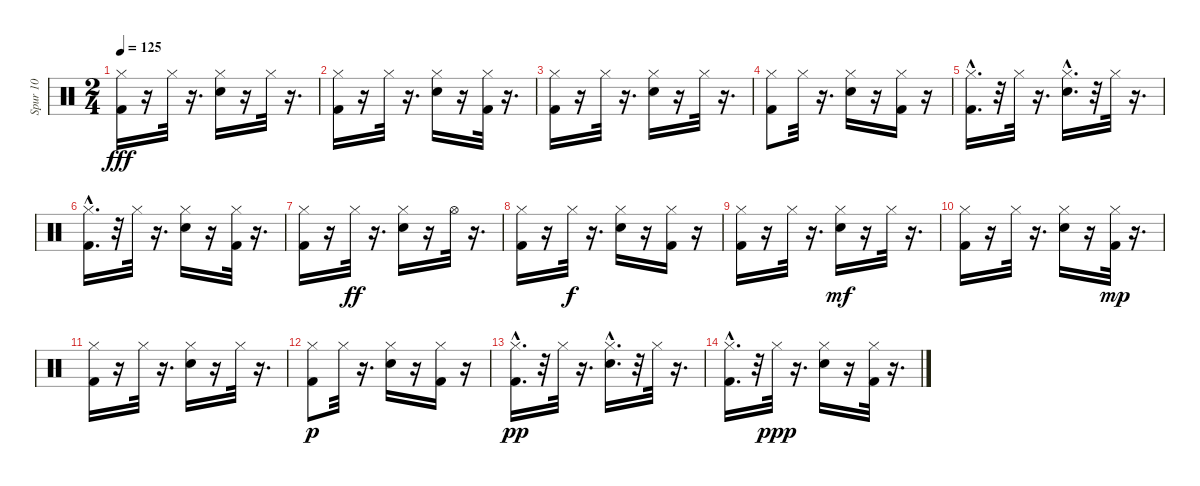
\track ("Spur 10" "Spur 10") {instrument percussion}
\staff {score}
\articulation defaults
\ts (2 4)
\tempo 125
\clef neutral
\ks c
("Kick (hit) 2" "Hi-Hat (closed)").16{dy fff} r.16 "Hi-Hat (closed)".32 r.16{d} ("Snare (hit) 2" "Hi-Hat (closed)").16 r.16 "Hi-Hat (closed)".32 r.16{d} |
("Kick (hit) 2" "Hi-Hat (closed)").16 r.16 "Hi-Hat (closed)".32 r.16{d} ("Snare (hit) 2" "Hi-Hat (closed)").16 r.16 ("Kick (hit) 2" "Hi-Hat (closed)").32 r.16{d} |
("Kick (hit) 2" "Hi-Hat (closed)").16 r.16 "Hi-Hat (closed)".32 r.16{d} ("Snare (hit) 2" "Hi-Hat (closed)").16 r.16 "Hi-Hat (closed)".32 r.16{d} |
("Kick (hit) 2" "Hi-Hat (closed)").8 "Hi-Hat (closed)".32 r.16{d} ("Snare (hit) 2" "Hi-Hat (closed)").16 r.16 ("Kick (hit) 2" "Hi-Hat (closed)").16 r.16 |
("Kick (hit) 2"{hac} "Hi-Hat (closed)").16{d} r.32 "Hi-Hat (closed)".32 r.16{d} ("Snare (hit) 2"{hac} "Hi-Hat (closed)").16{d} r.32 "Hi-Hat (closed)".32 r.16{d} |
("Kick (hit) 2"{hac} "Hi-Hat (closed)").16{d} r.32 "Hi-Hat (closed)".32 r.16{d} ("Snare (hit) 2" "Hi-Hat (closed)").16 r.16 ("Kick (hit) 2" "Hi-Hat (closed)").32 r.16{d} |
("Kick (hit) 2" "Hi-Hat (closed)").16 r.16 "Hi-Hat (closed)".32{dy ff} r.16{d} ("Snare (hit) 2" "Hi-Hat (closed)").16 r.16 "Hi-Hat (open)".32 r.16{d} |
("Kick (hit) 2" "Hi-Hat (closed)").16 r.16 "Hi-Hat (closed)".32{dy f} r.16{d} ("Snare (hit) 2" "Hi-Hat (closed)").16 r.16 ("Kick (hit) 2" "Hi-Hat (closed)").16 r.16 |
("Kick (hit) 2" "Hi-Hat (closed)").16 r.16 "Hi-Hat (closed)".32 r.16{d} ("Snare (hit) 2" "Hi-Hat (closed)").16{dy mf} r.16 "Hi-Hat (closed)".32 r.16{d} |
("Kick (hit) 2" "Hi-Hat (closed)").16 r.16 "Hi-Hat (closed)".32 r.16{d} ("Snare (hit) 2" "Hi-Hat (closed)").16 r.16 ("Kick (hit) 2" "Hi-Hat (closed)").32{dy mp} r.16{d} |
("Kick (hit) 2" "Hi-Hat (closed)").16 r.16 "Hi-Hat (closed)".32 r.16{d} ("Snare (hit) 2" "Hi-Hat (closed)").16 r.16 "Hi-Hat (closed)".32 r.16{d} |
("Kick (hit) 2" "Hi-Hat (closed)").8{dy p} "Hi-Hat (closed)".32 r.16{d} ("Snare (hit) 2" "Hi-Hat (closed)").16 r.16 ("Kick (hit) 2" "Hi-Hat (closed)").16 r.16 |
("Kick (hit) 2"{hac} "Hi-Hat (closed)").16{d dy pp} r.32 "Hi-Hat (closed)".32 r.16{d} ("Snare (hit) 2"{hac} "Hi-Hat (closed)").16{d} r.32 "Hi-Hat (closed)".32 r.16{d} |
("Kick (hit) 2"{hac} "Hi-Hat (closed)").16{d} r.32 "Hi-Hat (closed)".32{dy ppp} r.16{d} ("Snare (hit) 2" "Hi-Hat (closed)").16 r.16 ("Kick (hit) 2" "Hi-Hat (closed)").32 r.16{d}
